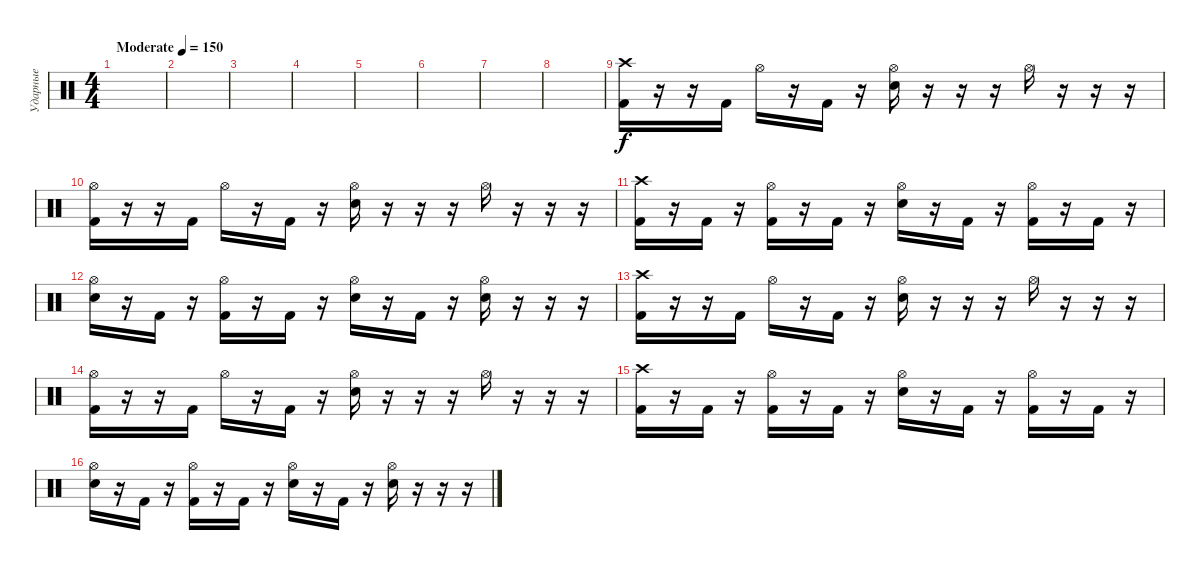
\track ("Ударные" "Ударные") {instrument percussion}
\staff {score}
\articulation defaults
\ts (4 4)
\tempo (150 "Moderate")
\clef neutral
\ks c
|
|
|
|
|
|
|
|
("Crash high (hit)" "Kick (hit) 2").16 r.16 r.16 "Kick (hit) 2".16 "Hi-Hat (open)".16 r.16 "Kick (hit) 2".16 r.16 ("Hi-Hat (open)" "Electric Snare (hit)").16 r.16 r.16 r.16 "Hi-Hat (open)".16 r.16 r.16 r.16 |
("Hi-Hat (open)" "Kick (hit) 2").16 r.16 r.16 "Kick (hit) 2".16 "Hi-Hat (open)".16 r.16 "Kick (hit) 2".16 r.16 ("Hi-Hat (open)" "Electric Snare (hit)").16 r.16 r.16 r.16 "Hi-Hat (open)".16 r.16 r.16 r.16 |
("Crash high (hit)" "Kick (hit) 2").16 r.16 "Kick (hit) 2".16 r.16 ("Hi-Hat (open)" "Kick (hit) 2").16 r.16 "Kick (hit) 2".16 r.16 ("Hi-Hat (open)" "Electric Snare (hit)").16 r.16 "Kick (hit) 2".16 r.16 ("Hi-Hat (open)" "Kick (hit) 2").16 r.16 "Kick (hit) 2".16 r.16 |
("Hi-Hat (open)" "Electric Snare (hit)").16 r.16 "Kick (hit) 2".16 r.16 ("Hi-Hat (open)" "Kick (hit) 2").16 r.16 "Kick (hit) 2".16 r.16 ("Hi-Hat (open)" "Electric Snare (hit)").16 r.16 "Kick (hit) 2".16 r.16 ("Hi-Hat (open)" "Electric Snare (hit)").16 r.16 r.16 r.16 |
("Crash high (hit)" "Kick (hit) 2").16 r.16 r.16 "Kick (hit) 2".16 "Hi-Hat (open)".16 r.16 "Kick (hit) 2".16 r.16 ("Hi-Hat (open)" "Electric Snare (hit)").16 r.16 r.16 r.16 "Hi-Hat (open)".16 r.16 r.16 r.16 |
("Hi-Hat (open)" "Kick (hit) 2").16 r.16 r.16 "Kick (hit) 2".16 "Hi-Hat (open)".16 r.16 "Kick (hit) 2".16 r.16 ("Hi-Hat (open)" "Electric Snare (hit)").16 r.16 r.16 r.16 "Hi-Hat (open)".16 r.16 r.16 r.16 |
("Crash high (hit)" "Kick (hit) 2").16 r.16 "Kick (hit) 2".16 r.16 ("Hi-Hat (open)" "Kick (hit) 2").16 r.16 "Kick (hit) 2".16 r.16 ("Hi-Hat (open)" "Electric Snare (hit)").16 r.16 "Kick (hit) 2".16 r.16 ("Hi-Hat (open)" "Kick (hit) 2").16 r.16 "Kick (hit) 2".16 r.16 |
("Hi-Hat (open)" "Electric Snare (hit)").16 r.16 "Kick (hit) 2".16 r.16 ("Hi-Hat (open)" "Kick (hit) 2").16 r.16 "Kick (hit) 2".16 r.16 ("Hi-Hat (open)" "Electric Snare (hit)").16 r.16 "Kick (hit) 2".16 r.16 ("Hi-Hat (open)" "Electric Snare (hit)").16 r.16 r.16 r.16
